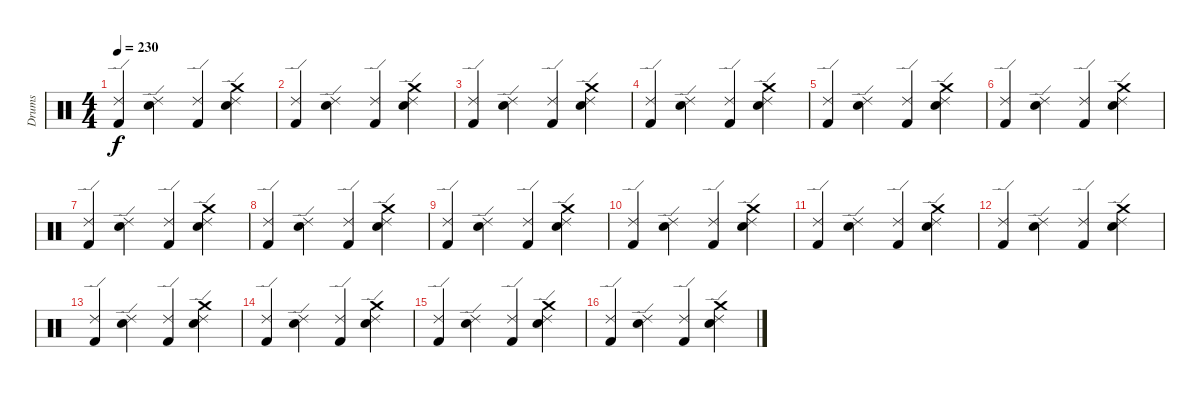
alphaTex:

\track ("Drums" "Drums") {instrument percussion}
\staff {score}
\articulation defaults
\ts (4 4)
\tempo 230
\clef neutral
\ks c
("Kick (hit) 2" "Ride (edge) 2").4{dy f} ("Snare (hit) 2" "Ride (edge) 2").4 ("Kick (hit) 2" "Ride (edge) 2").4 ("Crash medium (hit)" "Snare (hit) 2" "Ride (edge) 2").4 |
("Kick (hit) 2" "Ride (edge) 2").4 ("Snare (hit) 2" "Ride (edge) 2").4 ("Kick (hit) 2" "Ride (edge) 2").4 ("Crash medium (hit)" "Snare (hit) 2" "Ride (edge) 2").4 |
("Kick (hit) 2" "Ride (edge) 2").4 ("Snare (hit) 2" "Ride (edge) 2").4 ("Kick (hit) 2" "Ride (edge) 2").4 ("Crash medium (hit)" "Snare (hit) 2" "Ride (edge) 2").4 |
("Kick (hit) 2" "Ride (edge) 2").4 ("Snare (hit) 2" "Ride (edge) 2").4 ("Kick (hit) 2" "Ride (edge) 2").4 ("Crash medium (hit)" "Snare (hit) 2" "Ride (edge) 2").4 |
("Kick (hit) 2" "Ride (edge) 2").4 ("Snare (hit) 2" "Ride (edge) 2").4 ("Kick (hit) 2" "Ride (edge) 2").4 ("Crash medium (hit)" "Snare (hit) 2" "Ride (edge) 2").4 |
("Kick (hit) 2" "Ride (edge) 2").4 ("Snare (hit) 2" "Ride (edge) 2").4 ("Kick (hit) 2" "Ride (edge) 2").4 ("Crash medium (hit)" "Snare (hit) 2" "Ride (edge) 2").4 |
("Kick (hit) 2" "Ride (edge) 2").4 ("Snare (hit) 2" "Ride (edge) 2").4 ("Kick (hit) 2" "Ride (edge) 2").4 ("Crash medium (hit)" "Snare (hit) 2" "Ride (edge) 2").4 |
("Kick (hit) 2" "Ride (edge) 2").4 ("Snare (hit) 2" "Ride (edge) 2").4 ("Kick (hit) 2" "Ride (edge) 2").4 ("Crash medium (hit)" "Snare (hit) 2" "Ride (edge) 2").4 |
("Kick (hit) 2" "Ride (edge) 2").4 ("Snare (hit) 2" "Ride (edge) 2").4 ("Kick (hit) 2" "Ride (edge) 2").4 ("Crash medium (hit)" "Snare (hit) 2" "Ride (edge) 2").4 |
("Kick (hit) 2" "Ride (edge) 2").4 ("Snare (hit) 2" "Ride (edge) 2").4 ("Kick (hit) 2" "Ride (edge) 2").4 ("Crash medium (hit)" "Snare (hit) 2" "Ride (edge) 2").4 |
("Kick (hit) 2" "Ride (edge) 2").4 ("Snare (hit) 2" "Ride (edge) 2").4 ("Kick (hit) 2" "Ride (edge) 2").4 ("Crash medium (hit)" "Snare (hit) 2" "Ride (edge) 2").4 |
("Kick (hit) 2" "Ride (edge) 2").4 ("Snare (hit) 2" "Ride (edge) 2").4 ("Kick (hit) 2" "Ride (edge) 2").4 ("Crash medium (hit)" "Snare (hit) 2" "Ride (edge) 2").4 |
("Kick (hit) 2" "Ride (edge) 2").4 ("Snare (hit) 2" "Ride (edge) 2").4 ("Kick (hit) 2" "Ride (edge) 2").4 ("Crash medium (hit)" "Snare (hit) 2" "Ride (edge) 2").4 |
("Kick (hit) 2" "Ride (edge) 2").4 ("Snare (hit) 2" "Ride (edge) 2").4 ("Kick (hit) 2" "Ride (edge) 2").4 ("Crash medium (hit)" "Snare (hit) 2" "Ride (edge) 2").4 |
("Kick (hit) 2" "Ride (edge) 2").4 ("Snare (hit) 2" "Ride (edge) 2").4 ("Kick (hit) 2" "Ride (edge) 2").4 ("Crash medium (hit)" "Snare (hit) 2" "Ride (edge) 2").4 |
("Kick (hit) 2" "Ride (edge) 2").4 ("Snare (hit) 2" "Ride (edge) 2").4 ("Kick (hit) 2" "Ride (edge) 2").4 ("Crash medium (hit)" "Snare (hit) 2" "Ride (edge) 2").4
